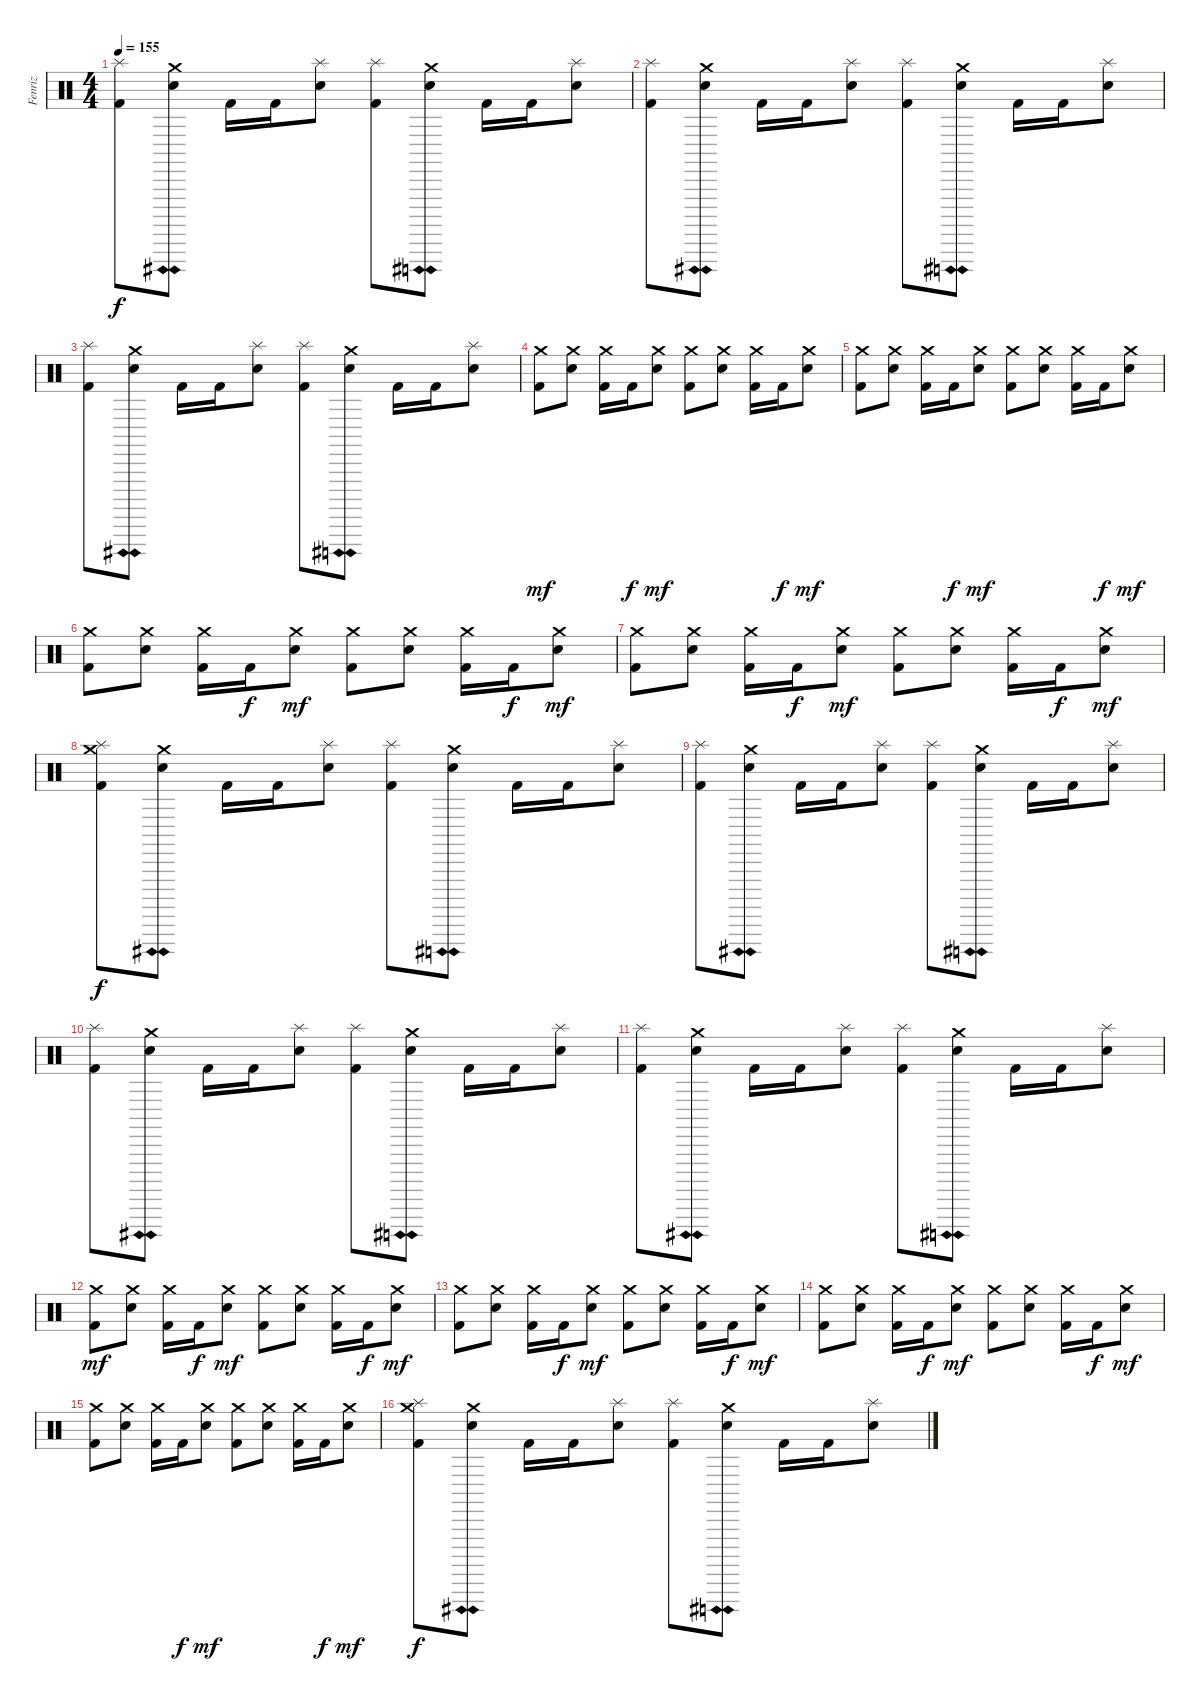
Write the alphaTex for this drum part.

\track ("Fenriz" "Fenriz") {instrument percussion}
\staff {score}
\articulation defaults
\ts (4 4)
\tempo 155
\clef neutral
\ks c
("Kick (hit) 2" "Splash (hit)").8{dy f} ("Electric Snare (hit)"{ah 12} "Crash medium (hit)"{ah 12}).8 "Kick (hit) 2".16 "Kick (hit) 2".16 ("Electric Snare (hit)" "Splash (hit)").8 ("Kick (hit) 2" "Splash (hit)").8 ("Electric Snare (hit)"{ah 12} "Crash medium (hit)"{ah 12}).8 "Kick (hit) 2".16 "Kick (hit) 2".16 ("Electric Snare (hit)" "Splash (hit)").8 |
("Kick (hit) 2" "Splash (hit)").8 ("Electric Snare (hit)"{ah 12} "Crash medium (hit)"{ah 12}).8 "Kick (hit) 2".16 "Kick (hit) 2".16 ("Electric Snare (hit)" "Splash (hit)").8 ("Kick (hit) 2" "Splash (hit)").8 ("Electric Snare (hit)"{ah 12} "Crash medium (hit)"{ah 12}).8 "Kick (hit) 2".16 "Kick (hit) 2".16 ("Electric Snare (hit)" "Splash (hit)").8 |
("Kick (hit) 2" "Splash (hit)").8 ("Electric Snare (hit)"{ah 12} "Crash medium (hit)"{ah 12}).8 "Kick (hit) 2".16 "Kick (hit) 2".16 ("Electric Snare (hit)" "Splash (hit)").8 ("Kick (hit) 2" "Splash (hit)").8 ("Electric Snare (hit)"{ah 12} "Crash medium (hit)"{ah 12}).8 "Kick (hit) 2".16 "Kick (hit) 2".16 ("Electric Snare (hit)" "Splash (hit)").8 |
("Kick (hit) 2" "Crash medium (hit)").8{dy mf} ("Electric Snare (hit)" "Crash medium (hit)").8 ("Kick (hit) 2" "Crash medium (hit)").16 "Kick (hit) 2".16{dy f} ("Electric Snare (hit)" "Crash medium (hit)").8{dy mf} ("Kick (hit) 2" "Crash medium (hit)").8 ("Electric Snare (hit)" "Crash medium (hit)").8 ("Kick (hit) 2" "Crash medium (hit)").16 "Kick (hit) 2".16{dy f} ("Electric Snare (hit)" "Crash medium (hit)").8{dy mf} |
("Kick (hit) 2" "Crash medium (hit)").8 ("Electric Snare (hit)" "Crash medium (hit)").8 ("Kick (hit) 2" "Crash medium (hit)").16 "Kick (hit) 2".16{dy f} ("Electric Snare (hit)" "Crash medium (hit)").8{dy mf} ("Kick (hit) 2" "Crash medium (hit)").8 ("Electric Snare (hit)" "Crash medium (hit)").8 ("Kick (hit) 2" "Crash medium (hit)").16 "Kick (hit) 2".16{dy f} ("Electric Snare (hit)" "Crash medium (hit)").8{dy mf} |
("Kick (hit) 2" "Crash medium (hit)").8 ("Electric Snare (hit)" "Crash medium (hit)").8 ("Kick (hit) 2" "Crash medium (hit)").16 "Kick (hit) 2".16{dy f} ("Electric Snare (hit)" "Crash medium (hit)").8{dy mf} ("Kick (hit) 2" "Crash medium (hit)").8 ("Electric Snare (hit)" "Crash medium (hit)").8 ("Kick (hit) 2" "Crash medium (hit)").16 "Kick (hit) 2".16{dy f} ("Electric Snare (hit)" "Crash medium (hit)").8{dy mf} |
("Kick (hit) 2" "Crash medium (hit)").8 ("Electric Snare (hit)" "Crash medium (hit)").8 ("Kick (hit) 2" "Crash medium (hit)").16 "Kick (hit) 2".16{dy f} ("Electric Snare (hit)" "Crash medium (hit)").8{dy mf} ("Kick (hit) 2" "Crash medium (hit)").8 ("Electric Snare (hit)" "Crash medium (hit)").8 ("Kick (hit) 2" "Crash medium (hit)").16 "Kick (hit) 2".16{dy f} ("Electric Snare (hit)" "Crash medium (hit)").8{dy mf} |
("Kick (hit) 2" "Crash medium (hit)" "Splash (hit)").8{dy f} ("Electric Snare (hit)"{ah 12} "Crash medium (hit)"{ah 12}).8 "Kick (hit) 2".16 "Kick (hit) 2".16 ("Electric Snare (hit)" "Splash (hit)").8 ("Kick (hit) 2" "Splash (hit)").8 ("Electric Snare (hit)"{ah 12} "Crash medium (hit)"{ah 12}).8 "Kick (hit) 2".16 "Kick (hit) 2".16 ("Electric Snare (hit)" "Splash (hit)").8 |
("Kick (hit) 2" "Splash (hit)").8 ("Electric Snare (hit)"{ah 12} "Crash medium (hit)"{ah 12}).8 "Kick (hit) 2".16 "Kick (hit) 2".16 ("Electric Snare (hit)" "Splash (hit)").8 ("Kick (hit) 2" "Splash (hit)").8 ("Electric Snare (hit)"{ah 12} "Crash medium (hit)"{ah 12}).8 "Kick (hit) 2".16 "Kick (hit) 2".16 ("Electric Snare (hit)" "Splash (hit)").8 |
("Kick (hit) 2" "Splash (hit)").8 ("Electric Snare (hit)"{ah 12} "Crash medium (hit)"{ah 12}).8 "Kick (hit) 2".16 "Kick (hit) 2".16 ("Electric Snare (hit)" "Splash (hit)").8 ("Kick (hit) 2" "Splash (hit)").8 ("Electric Snare (hit)"{ah 12} "Crash medium (hit)"{ah 12}).8 "Kick (hit) 2".16 "Kick (hit) 2".16 ("Electric Snare (hit)" "Splash (hit)").8 |
("Kick (hit) 2" "Splash (hit)").8 ("Electric Snare (hit)"{ah 12} "Crash medium (hit)"{ah 12}).8 "Kick (hit) 2".16 "Kick (hit) 2".16 ("Electric Snare (hit)" "Splash (hit)").8 ("Kick (hit) 2" "Splash (hit)").8 ("Electric Snare (hit)"{ah 12} "Crash medium (hit)"{ah 12}).8 "Kick (hit) 2".16 "Kick (hit) 2".16 ("Electric Snare (hit)" "Splash (hit)").8 |
("Kick (hit) 2" "Crash medium (hit)").8{dy mf} ("Electric Snare (hit)" "Crash medium (hit)").8 ("Kick (hit) 2" "Crash medium (hit)").16 "Kick (hit) 2".16{dy f} ("Electric Snare (hit)" "Crash medium (hit)").8{dy mf} ("Kick (hit) 2" "Crash medium (hit)").8 ("Electric Snare (hit)" "Crash medium (hit)").8 ("Kick (hit) 2" "Crash medium (hit)").16 "Kick (hit) 2".16{dy f} ("Electric Snare (hit)" "Crash medium (hit)").8{dy mf} |
("Kick (hit) 2" "Crash medium (hit)").8 ("Electric Snare (hit)" "Crash medium (hit)").8 ("Kick (hit) 2" "Crash medium (hit)").16 "Kick (hit) 2".16{dy f} ("Electric Snare (hit)" "Crash medium (hit)").8{dy mf} ("Kick (hit) 2" "Crash medium (hit)").8 ("Electric Snare (hit)" "Crash medium (hit)").8 ("Kick (hit) 2" "Crash medium (hit)").16 "Kick (hit) 2".16{dy f} ("Electric Snare (hit)" "Crash medium (hit)").8{dy mf} |
("Kick (hit) 2" "Crash medium (hit)").8 ("Electric Snare (hit)" "Crash medium (hit)").8 ("Kick (hit) 2" "Crash medium (hit)").16 "Kick (hit) 2".16{dy f} ("Electric Snare (hit)" "Crash medium (hit)").8{dy mf} ("Kick (hit) 2" "Crash medium (hit)").8 ("Electric Snare (hit)" "Crash medium (hit)").8 ("Kick (hit) 2" "Crash medium (hit)").16 "Kick (hit) 2".16{dy f} ("Electric Snare (hit)" "Crash medium (hit)").8{dy mf} |
("Kick (hit) 2" "Crash medium (hit)").8 ("Electric Snare (hit)" "Crash medium (hit)").8 ("Kick (hit) 2" "Crash medium (hit)").16 "Kick (hit) 2".16{dy f} ("Electric Snare (hit)" "Crash medium (hit)").8{dy mf} ("Kick (hit) 2" "Crash medium (hit)").8 ("Electric Snare (hit)" "Crash medium (hit)").8 ("Kick (hit) 2" "Crash medium (hit)").16 "Kick (hit) 2".16{dy f} ("Electric Snare (hit)" "Crash medium (hit)").8{dy mf} |
("Kick (hit) 2" "Crash medium (hit)" "Splash (hit)").8{dy f} ("Electric Snare (hit)"{ah 12} "Crash medium (hit)"{ah 12}).8 "Kick (hit) 2".16 "Kick (hit) 2".16 ("Electric Snare (hit)" "Splash (hit)").8 ("Kick (hit) 2" "Splash (hit)").8 ("Electric Snare (hit)"{ah 12} "Crash medium (hit)"{ah 12}).8 "Kick (hit) 2".16 "Kick (hit) 2".16 ("Electric Snare (hit)" "Splash (hit)").8
